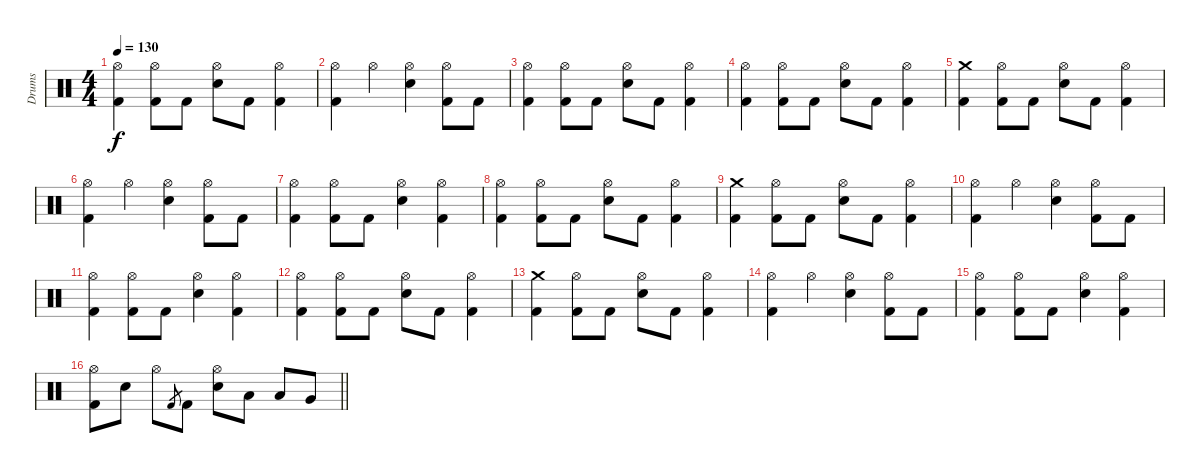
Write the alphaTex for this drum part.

\track ("Drums" "Drums") {instrument percussion}
\staff {score}
\articulation defaults
\ts (4 4)
\tempo 130
\clef neutral
\ks c
("Hi-Hat (open)" "Kick (hit) 2").4{dy f} ("Hi-Hat (open)" "Kick (hit) 2").8 "Kick (hit) 2".8 ("Hi-Hat (open)" "Electric Snare (hit)").8 "Kick (hit) 2".8 ("Hi-Hat (open)" "Kick (hit) 2").4 |
("Hi-Hat (open)" "Kick (hit) 2").4 "Hi-Hat (open)".4 ("Hi-Hat (open)" "Electric Snare (hit)").4 ("Hi-Hat (open)" "Kick (hit) 2").8 "Kick (hit) 2".8 |
("Hi-Hat (open)" "Kick (hit) 2").4 ("Hi-Hat (open)" "Kick (hit) 2").8 "Kick (hit) 2".8 ("Hi-Hat (open)" "Electric Snare (hit)").8 "Kick (hit) 2".8 ("Hi-Hat (open)" "Kick (hit) 2").4 |
("Hi-Hat (open)" "Kick (hit) 2").4 ("Hi-Hat (open)" "Kick (hit) 2").8 "Kick (hit) 2".8 ("Hi-Hat (open)" "Electric Snare (hit)").8 "Kick (hit) 2".8 ("Hi-Hat (open)" "Kick (hit) 2").4 |
("Crash medium (hit)" "Kick (hit) 2").4 ("Hi-Hat (open)" "Kick (hit) 2").8 "Kick (hit) 2".8 ("Hi-Hat (open)" "Electric Snare (hit)").8 "Kick (hit) 2".8 ("Hi-Hat (open)" "Kick (hit) 2").4 |
("Hi-Hat (open)" "Kick (hit) 2").4 "Hi-Hat (open)".4 ("Hi-Hat (open)" "Electric Snare (hit)").4 ("Hi-Hat (open)" "Kick (hit) 2").8 "Kick (hit) 2".8 |
("Hi-Hat (open)" "Kick (hit) 2").4 ("Hi-Hat (open)" "Kick (hit) 2").8 "Kick (hit) 2".8 ("Hi-Hat (open)" "Electric Snare (hit)").4 ("Hi-Hat (open)" "Kick (hit) 2").4 |
("Hi-Hat (open)" "Kick (hit) 2").4 ("Hi-Hat (open)" "Kick (hit) 2").8 "Kick (hit) 2".8 ("Hi-Hat (open)" "Electric Snare (hit)").8 "Kick (hit) 2".8 ("Hi-Hat (open)" "Kick (hit) 2").4 |
("Crash medium (hit)" "Kick (hit) 2").4 ("Hi-Hat (open)" "Kick (hit) 2").8 "Kick (hit) 2".8 ("Hi-Hat (open)" "Electric Snare (hit)").8 "Kick (hit) 2".8 ("Hi-Hat (open)" "Kick (hit) 2").4 |
("Hi-Hat (open)" "Kick (hit) 2").4 "Hi-Hat (open)".4 ("Hi-Hat (open)" "Electric Snare (hit)").4 ("Hi-Hat (open)" "Kick (hit) 2").8 "Kick (hit) 2".8 |
("Hi-Hat (open)" "Kick (hit) 2").4 ("Hi-Hat (open)" "Kick (hit) 2").8 "Kick (hit) 2".8 ("Hi-Hat (open)" "Electric Snare (hit)").4 ("Hi-Hat (open)" "Kick (hit) 2").4 |
("Hi-Hat (open)" "Kick (hit) 2").4 ("Hi-Hat (open)" "Kick (hit) 2").8 "Kick (hit) 2".8 ("Hi-Hat (open)" "Electric Snare (hit)").8 "Kick (hit) 2".8 ("Hi-Hat (open)" "Kick (hit) 2").4 |
("Crash medium (hit)" "Kick (hit) 2").4 ("Hi-Hat (open)" "Kick (hit) 2").8 "Kick (hit) 2".8 ("Hi-Hat (open)" "Electric Snare (hit)").8 "Kick (hit) 2".8 ("Hi-Hat (open)" "Kick (hit) 2").4 |
("Hi-Hat (open)" "Kick (hit) 2").4 "Hi-Hat (open)".4 ("Hi-Hat (open)" "Electric Snare (hit)").4 ("Hi-Hat (open)" "Kick (hit) 2").8 "Kick (hit) 2".8 |
("Hi-Hat (open)" "Kick (hit) 2").4 ("Hi-Hat (open)" "Kick (hit) 2").8 "Kick (hit) 2".8 ("Hi-Hat (open)" "Electric Snare (hit)").4 ("Hi-Hat (open)" "Kick (hit) 2").4 |
\barLineRight lightlight
("Hi-Hat (open)" "Kick (hit) 2").8 "Electric Snare (hit)".8 "Hi-Hat (open)".8 "Kick (hit) 2".8{gr} "Kick (hit) 2".8 ("Hi-Hat (open)" "Electric Snare (hit)").8 "Low Tom (hit)".8 "Low Tom (hit)".8 "Very Low Tom (hit)".8
